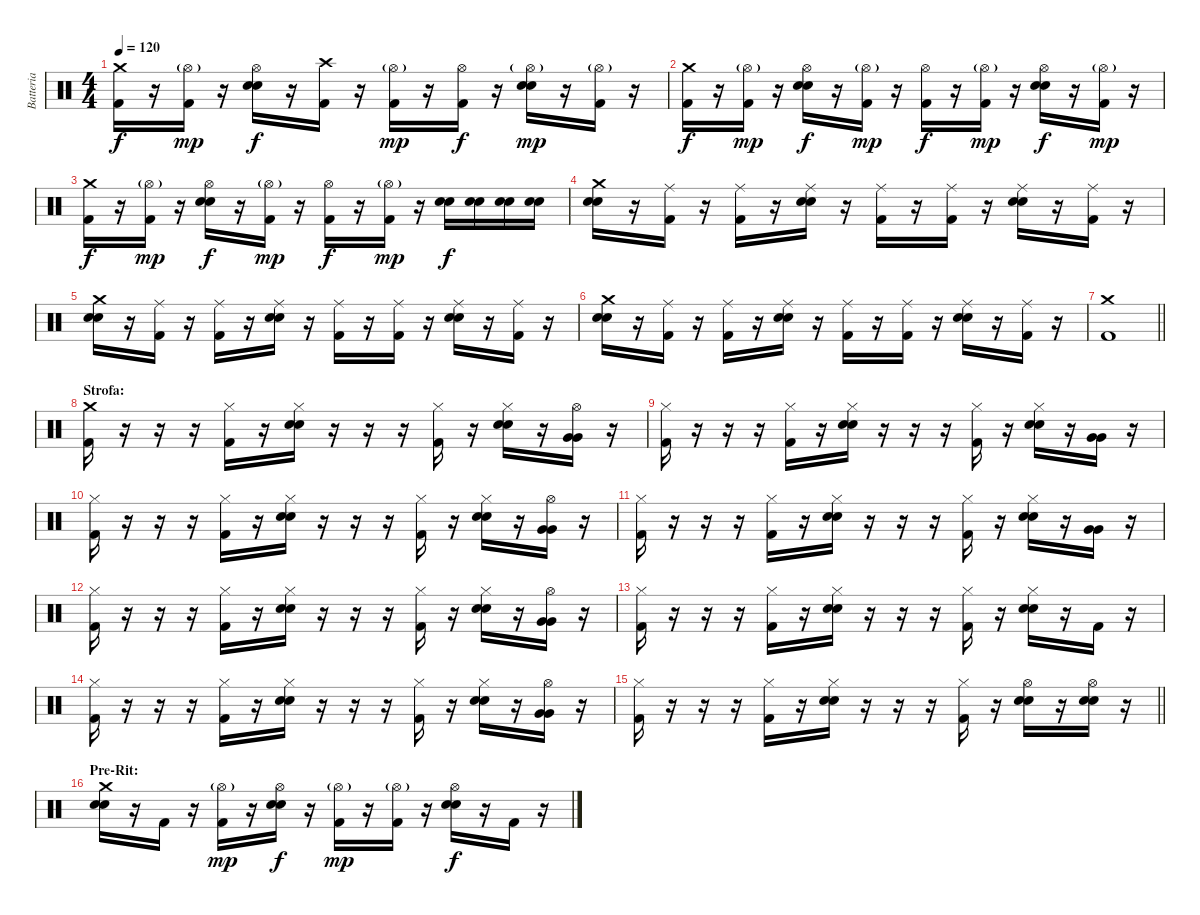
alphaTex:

\track ("Batteria" "Batteria") {instrument percussion}
\staff {score}
\articulation defaults
\ts (4 4)
\tempo 120
\clef neutral
\ks c
("Kick (hit) 2" "Crash medium (hit)").16{dy f} r.16 ("Kick (hit) 2" "Hi-Hat (open)"{g}).16{dy mp} r.16 ("Snare (hit) 2" "Snare (hit) 2" "Hi-Hat (open)").16{dy f} r.16 ("Kick (hit) 2" "Crash high (hit)").16 r.16 ("Kick (hit) 2" "Hi-Hat (open)"{g}).16{dy mp} r.16 ("Kick (hit) 2" "Hi-Hat (open)").16{dy f} r.16 ("Snare (hit) 2" "Snare (hit) 2" "Hi-Hat (open)"{g}).16{dy mp} r.16 ("Kick (hit) 2" "Hi-Hat (open)"{g}).16 r.16 |
("Kick (hit) 2" "Crash medium (hit)").16{dy f} r.16 ("Kick (hit) 2" "Hi-Hat (open)"{g}).16{dy mp} r.16 ("Snare (hit) 2" "Snare (hit) 2" "Hi-Hat (open)").16{dy f} r.16 ("Kick (hit) 2" "Hi-Hat (open)"{g}).16{dy mp} r.16 ("Kick (hit) 2" "Hi-Hat (open)").16{dy f} r.16 ("Kick (hit) 2" "Hi-Hat (open)"{g}).16{dy mp} r.16 ("Snare (hit) 2" "Snare (hit) 2" "Hi-Hat (open)").16{dy f} r.16 ("Kick (hit) 2" "Hi-Hat (open)"{g}).16{dy mp} r.16 |
("Kick (hit) 2" "Crash medium (hit)").16{dy f} r.16 ("Kick (hit) 2" "Hi-Hat (open)"{g}).16{dy mp} r.16 ("Snare (hit) 2" "Snare (hit) 2" "Hi-Hat (open)").16{dy f} r.16 ("Kick (hit) 2" "Hi-Hat (open)"{g}).16{dy mp} r.16 ("Kick (hit) 2" "Hi-Hat (open)").16{dy f} r.16 ("Kick (hit) 2" "Hi-Hat (open)"{g}).16{dy mp} r.16 ("Snare (hit) 2" "Snare (hit) 2").16{dy f} ("Snare (hit) 2" "Snare (hit) 2").16 ("Snare (hit) 2" "Snare (hit) 2").16 ("Snare (hit) 2" "Snare (hit) 2").16 |
("Snare (hit) 2" "Snare (hit) 2" "Crash medium (hit)").16 r.16 ("Kick (hit) 2" "Ride (middle)").16 r.16 ("Kick (hit) 2" "Ride (middle)").16 r.16 ("Snare (hit) 2" "Snare (hit) 2" "Ride (middle)").16 r.16 ("Kick (hit) 2" "Ride (middle)").16 r.16 ("Kick (hit) 2" "Ride (middle)").16 r.16 ("Snare (hit) 2" "Snare (hit) 2" "Ride (middle)").16 r.16 ("Kick (hit) 2" "Ride (middle)").16 r.16 |
("Snare (hit) 2" "Snare (hit) 2" "Crash medium (hit)").16 r.16 ("Kick (hit) 2" "Ride (middle)").16 r.16 ("Kick (hit) 2" "Ride (middle)").16 r.16 ("Snare (hit) 2" "Snare (hit) 2" "Ride (middle)").16 r.16 ("Kick (hit) 2" "Ride (middle)").16 r.16 ("Kick (hit) 2" "Ride (middle)").16 r.16 ("Snare (hit) 2" "Snare (hit) 2" "Ride (middle)").16 r.16 ("Kick (hit) 2" "Ride (middle)").16 r.16 |
("Snare (hit) 2" "Snare (hit) 2" "Crash medium (hit)").16 r.16 ("Kick (hit) 2" "Ride (middle)").16 r.16 ("Kick (hit) 2" "Ride (middle)").16 r.16 ("Snare (hit) 2" "Snare (hit) 2" "Ride (middle)").16 r.16 ("Kick (hit) 2" "Ride (middle)").16 r.16 ("Kick (hit) 2" "Ride (middle)").16 r.16 ("Snare (hit) 2" "Snare (hit) 2" "Ride (middle)").16 r.16 ("Kick (hit) 2" "Ride (middle)").16 r.16 |
\barLineRight lightlight
("Kick (hit) 2" "Crash medium (hit)").1 |
\section ("" "Strofa:")
("Kick (hit) 2" "Crash medium (hit)").16 r.16 r.16 r.16 ("Kick (hit) 2" "Hi-Hat (closed)").16 r.16 ("Snare (hit) 2" "Snare (hit) 2" "Hi-Hat (closed)").16 r.16 r.16 r.16 ("Kick (hit) 2" "Hi-Hat (closed)").16 r.16 ("Snare (hit) 2" "Snare (hit) 2" "Hi-Hat (closed)").16 r.16 ("Very Low Tom (hit)" "Very Low Tom (hit)" "Hi-Hat (open)").16 r.16 |
("Kick (hit) 2" "Hi-Hat (closed)").16 r.16 r.16 r.16 ("Kick (hit) 2" "Hi-Hat (closed)").16 r.16 ("Snare (hit) 2" "Snare (hit) 2" "Hi-Hat (closed)").16 r.16 r.16 r.16 ("Kick (hit) 2" "Hi-Hat (closed)").16 r.16 ("Snare (hit) 2" "Snare (hit) 2" "Hi-Hat (closed)").16 r.16 ("Very Low Tom (hit)" "Very Low Tom (hit)").16 r.16 |
("Kick (hit) 2" "Hi-Hat (closed)").16 r.16 r.16 r.16 ("Kick (hit) 2" "Hi-Hat (closed)").16 r.16 ("Snare (hit) 2" "Snare (hit) 2" "Hi-Hat (closed)").16 r.16 r.16 r.16 ("Kick (hit) 2" "Hi-Hat (closed)").16 r.16 ("Snare (hit) 2" "Snare (hit) 2" "Hi-Hat (closed)").16 r.16 ("Very Low Tom (hit)" "Very Low Tom (hit)" "Hi-Hat (open)").16 r.16 |
("Kick (hit) 2" "Hi-Hat (closed)").16 r.16 r.16 r.16 ("Kick (hit) 2" "Hi-Hat (closed)").16 r.16 ("Snare (hit) 2" "Snare (hit) 2" "Hi-Hat (closed)").16 r.16 r.16 r.16 ("Kick (hit) 2" "Hi-Hat (closed)").16 r.16 ("Snare (hit) 2" "Snare (hit) 2" "Hi-Hat (closed)").16 r.16 ("Very Low Tom (hit)" "Very Low Tom (hit)").16 r.16 |
("Kick (hit) 2" "Hi-Hat (closed)").16 r.16 r.16 r.16 ("Kick (hit) 2" "Hi-Hat (closed)").16 r.16 ("Snare (hit) 2" "Snare (hit) 2" "Hi-Hat (closed)").16 r.16 r.16 r.16 ("Kick (hit) 2" "Hi-Hat (closed)").16 r.16 ("Snare (hit) 2" "Snare (hit) 2" "Hi-Hat (closed)").16 r.16 ("Very Low Tom (hit)" "Very Low Tom (hit)" "Hi-Hat (open)").16 r.16 |
("Kick (hit) 2" "Hi-Hat (closed)").16 r.16 r.16 r.16 ("Kick (hit) 2" "Hi-Hat (closed)").16 r.16 ("Snare (hit) 2" "Snare (hit) 2" "Hi-Hat (closed)").16 r.16 r.16 r.16 ("Kick (hit) 2" "Hi-Hat (closed)").16 r.16 ("Snare (hit) 2" "Snare (hit) 2" "Hi-Hat (closed)").16 r.16 "Kick (hit) 2".16 r.16 |
("Kick (hit) 2" "Hi-Hat (closed)").16 r.16 r.16 r.16 ("Kick (hit) 2" "Hi-Hat (closed)").16 r.16 ("Snare (hit) 2" "Snare (hit) 2" "Hi-Hat (closed)").16 r.16 r.16 r.16 ("Kick (hit) 2" "Hi-Hat (closed)").16 r.16 ("Snare (hit) 2" "Snare (hit) 2" "Hi-Hat (closed)").16 r.16 ("Very Low Tom (hit)" "Very Low Tom (hit)" "Hi-Hat (open)").16 r.16 |
\barLineRight lightlight
("Kick (hit) 2" "Hi-Hat (closed)").16 r.16 r.16 r.16 ("Kick (hit) 2" "Hi-Hat (closed)").16 r.16 ("Snare (hit) 2" "Snare (hit) 2" "Hi-Hat (closed)").16 r.16 r.16 r.16 ("Kick (hit) 2" "Hi-Hat (closed)").16 r.16 ("Snare (hit) 2" "Snare (hit) 2" "Hi-Hat (open)").16 r.16 ("Snare (hit) 2" "Snare (hit) 2" "Hi-Hat (open)").16 r.16 |
\section ("" "Pre-Rit:")
("Snare (hit) 2" "Snare (hit) 2" "Crash medium (hit)").16 r.16 "Kick (hit) 2".16 r.16 ("Kick (hit) 2" "Hi-Hat (open)"{g}).16{dy mp} r.16 ("Snare (hit) 2" "Snare (hit) 2" "Hi-Hat (open)").16{dy f} r.16 ("Kick (hit) 2" "Hi-Hat (open)"{g}).16{dy mp} r.16 ("Kick (hit) 2" "Hi-Hat (open)"{g}).16 r.16 ("Snare (hit) 2" "Snare (hit) 2" "Hi-Hat (open)").16{dy f} r.16 "Kick (hit) 2".16 r.16
